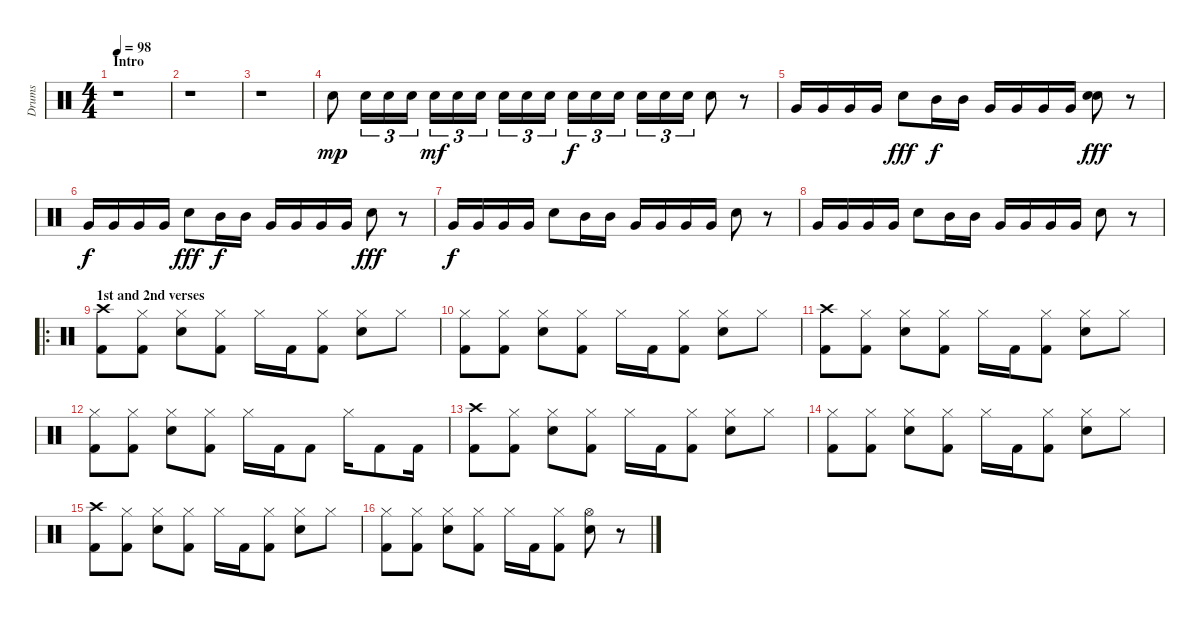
\track ("Drums" "Drums") {instrument percussion}
\staff {score}
\articulation defaults
\ts (4 4)
\section ("" "Intro")
\tempo 98
\clef neutral
\ks c
r.1{dy mp} |
r.1 |
r.1 |
"Electric Snare (hit)".8 "Electric Snare (hit)".16{tu (3 2)} "Electric Snare (hit)".16{tu (3 2)} "Electric Snare (hit)".16{tu (3 2)} "Electric Snare (hit)".16{tu (3 2) dy mf} "Electric Snare (hit)".16{tu (3 2)} "Electric Snare (hit)".16{tu (3 2)} "Electric Snare (hit)".16{tu (3 2)} "Electric Snare (hit)".16{tu (3 2)} "Electric Snare (hit)".16{tu (3 2)} "Electric Snare (hit)".16{tu (3 2) dy f} "Electric Snare (hit)".16{tu (3 2)} "Electric Snare (hit)".16{tu (3 2)} "Electric Snare (hit)".16{tu (3 2)} "Electric Snare (hit)".16{tu (3 2)} "Electric Snare (hit)".16{tu (3 2)} "Electric Snare (hit)".8 r.8 |
"Very Low Tom (hit)".16 "Very Low Tom (hit)".16 "Very Low Tom (hit)".16 "Very Low Tom (hit)".16 "Electric Snare (hit)".8{dy fff} "Mid Tom (hit)".16{dy f} "Mid Tom (hit)".16 "Very Low Tom (hit)".16 "Very Low Tom (hit)".16 "Very Low Tom (hit)".16 "Very Low Tom (hit)".16 ("Electric Snare (hit)"{x} "Electric Snare (hit)").8{dy fff} r.8 |
"Very Low Tom (hit)".16{dy f} "Very Low Tom (hit)".16 "Very Low Tom (hit)".16 "Very Low Tom (hit)".16 "Electric Snare (hit)".8{dy fff} "Mid Tom (hit)".16{dy f} "Mid Tom (hit)".16 "Very Low Tom (hit)".16 "Very Low Tom (hit)".16 "Very Low Tom (hit)".16 "Very Low Tom (hit)".16 "Electric Snare (hit)".8{dy fff} r.8 |
"Very Low Tom (hit)".16{dy f} "Very Low Tom (hit)".16 "Very Low Tom (hit)".16 "Very Low Tom (hit)".16 "Electric Snare (hit)".8 "Mid Tom (hit)".16 "Mid Tom (hit)".16 "Very Low Tom (hit)".16 "Very Low Tom (hit)".16 "Very Low Tom (hit)".16 "Very Low Tom (hit)".16 "Electric Snare (hit)".8 r.8 |
"Very Low Tom (hit)".16 "Very Low Tom (hit)".16 "Very Low Tom (hit)".16 "Very Low Tom (hit)".16 "Electric Snare (hit)".8 "Mid Tom (hit)".16 "Mid Tom (hit)".16 "Very Low Tom (hit)".16 "Very Low Tom (hit)".16 "Very Low Tom (hit)".16 "Very Low Tom (hit)".16 "Electric Snare (hit)".8 r.8 |
\ro
\section ("" "1st and 2nd verses")
("Crash high (hit)" "Kick (hit) 2").8 ("Hi-Hat (closed)" "Kick (hit) 2").8 ("Hi-Hat (closed)" "Electric Snare (hit)").8 ("Hi-Hat (closed)" "Kick (hit) 2").8 "Hi-Hat (closed)".16 "Kick (hit) 2".16 ("Hi-Hat (closed)" "Kick (hit) 2").8 ("Hi-Hat (closed)" "Electric Snare (hit)").8 "Hi-Hat (closed)".8 |
("Hi-Hat (closed)" "Kick (hit) 2").8 ("Hi-Hat (closed)" "Kick (hit) 2").8 ("Hi-Hat (closed)" "Electric Snare (hit)").8 ("Hi-Hat (closed)" "Kick (hit) 2").8 "Hi-Hat (closed)".16 "Kick (hit) 2".16 ("Hi-Hat (closed)" "Kick (hit) 2").8 ("Hi-Hat (closed)" "Electric Snare (hit)").8 "Hi-Hat (closed)".8 |
("Crash high (hit)" "Kick (hit) 2").8 ("Hi-Hat (closed)" "Kick (hit) 2").8 ("Hi-Hat (closed)" "Electric Snare (hit)").8 ("Hi-Hat (closed)" "Kick (hit) 2").8 "Hi-Hat (closed)".16 "Kick (hit) 2".16 ("Hi-Hat (closed)" "Kick (hit) 2").8 ("Hi-Hat (closed)" "Electric Snare (hit)").8 "Hi-Hat (closed)".8 |
("Hi-Hat (closed)" "Kick (hit) 2").8 ("Hi-Hat (closed)" "Kick (hit) 2").8 ("Hi-Hat (closed)" "Electric Snare (hit)").8 ("Hi-Hat (closed)" "Kick (hit) 2").8 "Hi-Hat (closed)".16 "Kick (hit) 2".16 "Kick (hit) 2".8 "Hi-Hat (closed)".16 "Kick (hit) 2".8 "Kick (hit) 2".16 |
("Crash high (hit)" "Kick (hit) 2").8 ("Hi-Hat (closed)" "Kick (hit) 2").8 ("Hi-Hat (closed)" "Electric Snare (hit)").8 ("Hi-Hat (closed)" "Kick (hit) 2").8 "Hi-Hat (closed)".16 "Kick (hit) 2".16 ("Hi-Hat (closed)" "Kick (hit) 2").8 ("Hi-Hat (closed)" "Electric Snare (hit)").8 "Hi-Hat (closed)".8 |
("Hi-Hat (closed)" "Kick (hit) 2").8 ("Hi-Hat (closed)" "Kick (hit) 2").8 ("Hi-Hat (closed)" "Electric Snare (hit)").8 ("Hi-Hat (closed)" "Kick (hit) 2").8 "Hi-Hat (closed)".16 "Kick (hit) 2".16 ("Hi-Hat (closed)" "Kick (hit) 2").8 ("Hi-Hat (closed)" "Electric Snare (hit)").8 "Hi-Hat (closed)".8 |
("Crash high (hit)" "Kick (hit) 2").8 ("Hi-Hat (closed)" "Kick (hit) 2").8 ("Hi-Hat (closed)" "Electric Snare (hit)").8 ("Hi-Hat (closed)" "Kick (hit) 2").8 "Hi-Hat (closed)".16 "Kick (hit) 2".16 ("Hi-Hat (closed)" "Kick (hit) 2").8 ("Hi-Hat (closed)" "Electric Snare (hit)").8 "Hi-Hat (closed)".8 |
("Hi-Hat (closed)" "Kick (hit) 2").8 ("Hi-Hat (closed)" "Kick (hit) 2").8 ("Hi-Hat (closed)" "Electric Snare (hit)").8 ("Hi-Hat (closed)" "Kick (hit) 2").8 "Hi-Hat (closed)".16 "Kick (hit) 2".16 ("Hi-Hat (closed)" "Kick (hit) 2").8 ("Hi-Hat (open)" "Electric Snare (hit)").8 r.8
